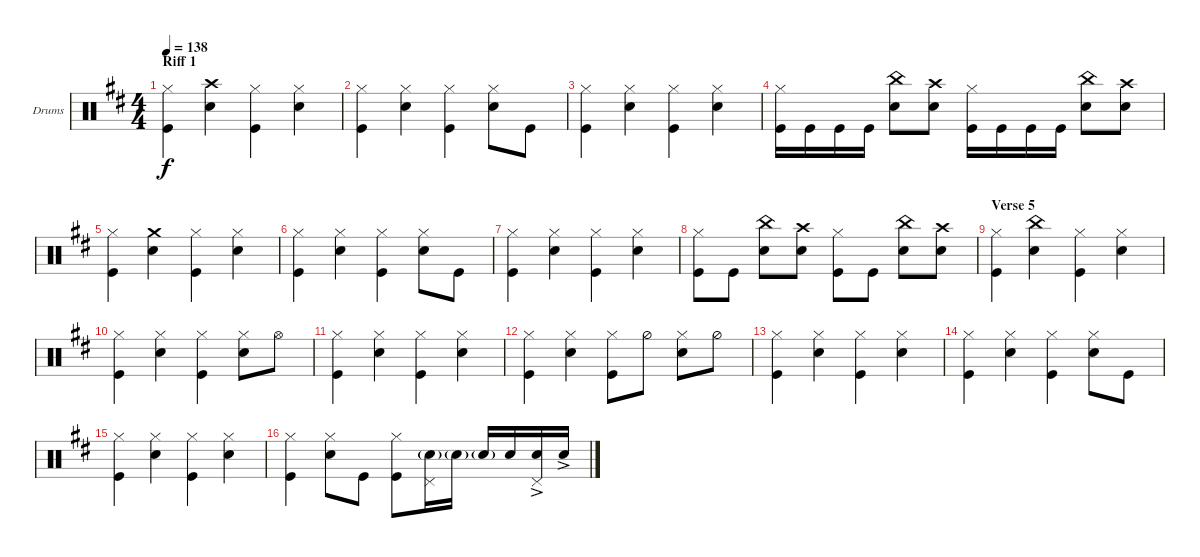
\defaultSystemsLayout 4
\bracketExtendMode groupsimilarinstruments
\firstSystemTrackNameOrientation horizontal
\otherSystemsTrackNameOrientation horizontal
\track ("Drumkit" "Drums") {instrument percussion}
\staff {score}
\articulation defaults
\ts (4 4)
\section ("" "Riff 1")
\tempo 138
\clef neutral
\ks d
("Hi-Hat (closed)" "Kick (hit)").4{dy f} ("Snare (hit) 2" "Crash high (hit)").4 ("Hi-Hat (closed)" "Kick (hit)").4 ("Hi-Hat (closed)" "Snare (hit) 2").4 |
("Hi-Hat (closed)" "Kick (hit)").4 ("Hi-Hat (closed)" "Snare (hit) 2").4 ("Hi-Hat (closed)" "Kick (hit)").4 ("Hi-Hat (closed)" "Snare (hit) 2").8 "Kick (hit)".8 |
("Hi-Hat (closed)" "Kick (hit)").4 ("Hi-Hat (closed)" "Snare (hit) 2").4 ("Hi-Hat (closed)" "Kick (hit)").4 ("Hi-Hat (closed)" "Snare (hit) 2").4 |
("Kick (hit)" "Hi-Hat (closed)").16 "Kick (hit)".16 "Kick (hit)".16 "Kick (hit)".16 ("China (hit)" "Snare (hit) 2").8 ("Crash high (hit)" "Snare (hit) 2").8 ("Kick (hit)" "Hi-Hat (closed)").16 "Kick (hit)".16 "Kick (hit)".16 "Kick (hit)".16 ("China (hit)" "Snare (hit) 2").8 ("Crash high (hit)" "Snare (hit) 2").8 |
("Hi-Hat (closed)" "Kick (hit)").4 ("Snare (hit) 2" "Crash medium (hit)").4 ("Hi-Hat (closed)" "Kick (hit)").4 ("Hi-Hat (closed)" "Snare (hit) 2").4 |
("Hi-Hat (closed)" "Kick (hit)").4 ("Hi-Hat (closed)" "Snare (hit) 2").4 ("Hi-Hat (closed)" "Kick (hit)").4 ("Hi-Hat (closed)" "Snare (hit) 2").8 "Kick (hit)".8 |
("Hi-Hat (closed)" "Kick (hit)").4 ("Hi-Hat (closed)" "Snare (hit) 2").4 ("Hi-Hat (closed)" "Kick (hit)").4 ("Hi-Hat (closed)" "Snare (hit) 2").4 |
("Kick (hit)" "Hi-Hat (closed)").8 "Kick (hit)".8 ("China (hit)" "Snare (hit) 2").8 ("Crash high (hit)" "Snare (hit) 2").8 ("Kick (hit)" "Hi-Hat (closed)").8 "Kick (hit)".8 ("China (hit)" "Snare (hit) 2").8 ("Crash high (hit)" "Snare (hit) 2").8 |
\section ("" "Verse 5")
("Hi-Hat (closed)" "Kick (hit)").4 ("Snare (hit) 2" "China (hit)").4 ("Hi-Hat (closed)" "Kick (hit)").4 ("Hi-Hat (closed)" "Snare (hit) 2").4 |
("Hi-Hat (closed)" "Kick (hit)").4 ("Hi-Hat (closed)" "Snare (hit) 2").4 ("Hi-Hat (closed)" "Kick (hit)").4 ("Hi-Hat (closed)" "Snare (hit) 2").8 "Hi-Hat (open)".8 |
("Hi-Hat (closed)" "Kick (hit)").4 ("Hi-Hat (closed)" "Snare (hit) 2").4 ("Hi-Hat (closed)" "Kick (hit)").4 ("Hi-Hat (closed)" "Snare (hit) 2").4 |
("Hi-Hat (closed)" "Kick (hit)").4 ("Hi-Hat (closed)" "Snare (hit) 2").4 ("Hi-Hat (closed)" "Kick (hit)").8 "Hi-Hat (half)".8 ("Hi-Hat (closed)" "Snare (hit) 2").8 "Hi-Hat (half)".8 |
("Hi-Hat (closed)" "Kick (hit)").4 ("Hi-Hat (closed)" "Snare (hit) 2").4 ("Hi-Hat (closed)" "Kick (hit)").4 ("Hi-Hat (closed)" "Snare (hit) 2").4 |
("Hi-Hat (closed)" "Kick (hit)").4 ("Hi-Hat (closed)" "Snare (hit) 2").4 ("Hi-Hat (closed)" "Kick (hit)").4 ("Hi-Hat (closed)" "Snare (hit) 2").8 "Kick (hit)".8 |
("Hi-Hat (closed)" "Kick (hit)").4 ("Hi-Hat (closed)" "Snare (hit) 2").4 ("Hi-Hat (closed)" "Kick (hit)").4 ("Hi-Hat (closed)" "Snare (hit) 2").4 |
("Hi-Hat (closed)" "Kick (hit)").4 ("Hi-Hat (closed)" "Snare (hit) 2").8 "Kick (hit)".8 ("Hi-Hat (closed)" "Kick (hit)").8 ("Snare (hit) 2"{g} "Pedal Hi-Hat (hit)").16 "Snare (hit) 2"{g}.16 "Snare (hit) 2"{g}.16 "Snare (hit) 2".16 ("Snare (hit) 2"{ac} "Pedal Hi-Hat (hit)").16 "Snare (hit) 2"{ac}.16
